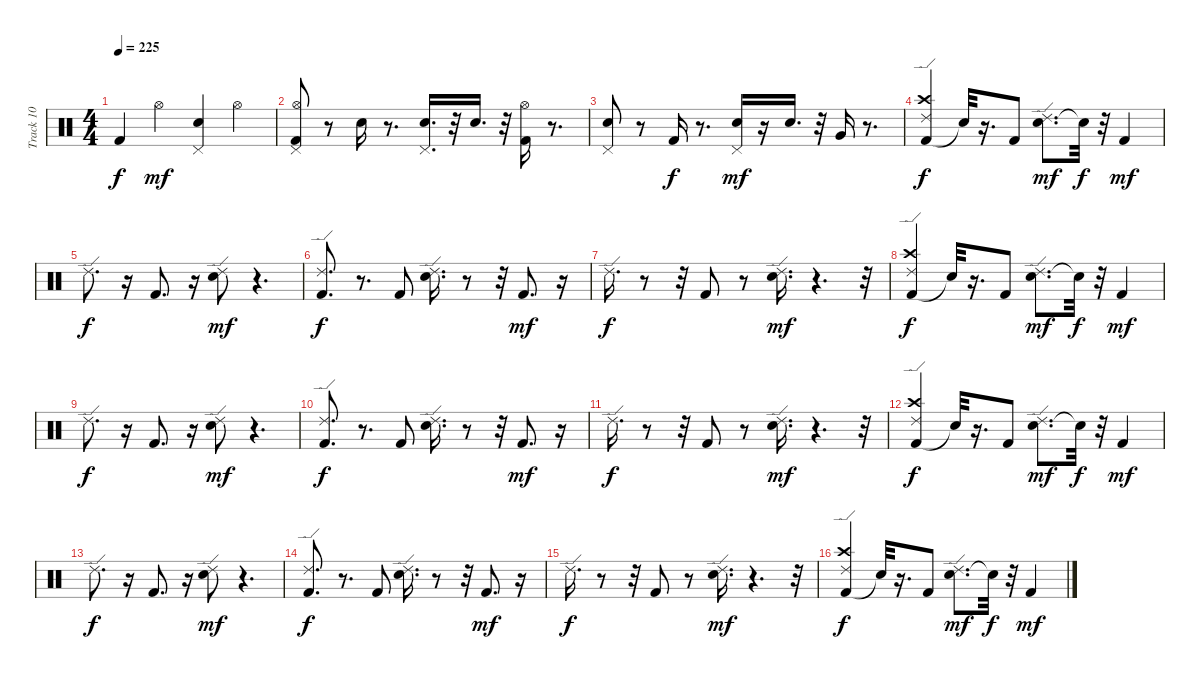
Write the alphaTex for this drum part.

\track ("Track 10" "Track 10") {instrument percussion}
\staff {score}
\articulation defaults
\ts (4 4)
\tempo 225
\clef neutral
\ks c "Kick (hit) 2".4{dy f} "Hi-Hat (open)".4{dy mf}
("Electric Snare (hit)" "Pedal Hi-Hat (hit)").4 "Hi-Hat (open)".4 |
("Kick (hit) 2" "Hi-Hat (open)" "Pedal Hi-Hat (hit)").8 r.8 "Electric Snare (hit)".16 r.8{d} ("Electric Snare (hit)" "Pedal Hi-Hat (hit)").16{d} r.32 "Electric Snare (hit)".16{d} r.32 ("Kick (hit) 2" "Hi-Hat (open)").16 r.8{d} |
("Electric Snare (hit)" "Pedal Hi-Hat (hit)").8 r.8 "Kick (hit) 2".16{dy f} r.8{d} ("Electric Snare (hit)" "Pedal Hi-Hat (hit)").16{dy mf} r.16 "Electric Snare (hit)".16{d} r.32 "Very Low Tom (hit)".16 r.8{d} |
("Kick (hit) 2" "Crash high (hit)" "Ride (edge) 2").4{dy f} "Snare (hit)"{t}.32 r.16{d} "Kick (hit) 2".8 ("Electric Snare (hit)" "Ride (edge) 2").8{d dy mf} "Snare (hit)"{t}.32{dy f} r.32 "Kick (hit) 2".4{dy mf} |
"Ride (edge) 2".8{d dy f} r.16 "Kick (hit) 2".8{d} r.16 ("Electric Snare (hit)" "Ride (edge) 2").8{dy mf} r.4{d} |
("Kick (hit) 2" "Ride (edge) 2").8{d dy f} r.8{d} "Kick (hit) 2".8 ("Electric Snare (hit)" "Ride (edge) 2").16{d} r.8 r.32 "Kick (hit) 2".8{d dy mf} r.16 |
"Ride (edge) 2".16{d dy f} r.8 r.32 "Kick (hit) 2".8 r.8 ("Electric Snare (hit)" "Ride (edge) 2").16{d dy mf} r.4{d} r.32 |
("Kick (hit) 2" "Crash high (hit)" "Ride (edge) 2").4{dy f} "Snare (hit)"{t}.32 r.16{d} "Kick (hit) 2".8 ("Electric Snare (hit)" "Ride (edge) 2").8{d dy mf} "Snare (hit)"{t}.32{dy f} r.32 "Kick (hit) 2".4{dy mf} |
"Ride (edge) 2".8{d dy f} r.16 "Kick (hit) 2".8{d} r.16 ("Electric Snare (hit)" "Ride (edge) 2").8{dy mf} r.4{d} |
("Kick (hit) 2" "Ride (edge) 2").8{d dy f} r.8{d} "Kick (hit) 2".8 ("Electric Snare (hit)" "Ride (edge) 2").16{d} r.8 r.32 "Kick (hit) 2".8{d dy mf} r.16 |
"Ride (edge) 2".16{d dy f} r.8 r.32 "Kick (hit) 2".8 r.8 ("Electric Snare (hit)" "Ride (edge) 2").16{d dy mf} r.4{d} r.32 |
("Kick (hit) 2" "Crash high (hit)" "Ride (edge) 2").4{dy f} "Snare (hit)"{t}.32 r.16{d} "Kick (hit) 2".8 ("Electric Snare (hit)" "Ride (edge) 2").8{d dy mf} "Snare (hit)"{t}.32{dy f} r.32 "Kick (hit) 2".4{dy mf} |
"Ride (edge) 2".8{d dy f} r.16 "Kick (hit) 2".8{d} r.16 ("Electric Snare (hit)" "Ride (edge) 2").8{dy mf} r.4{d} |
("Kick (hit) 2" "Ride (edge) 2").8{d dy f} r.8{d} "Kick (hit) 2".8 ("Electric Snare (hit)" "Ride (edge) 2").16{d} r.8 r.32 "Kick (hit) 2".8{d dy mf} r.16 |
"Ride (edge) 2".16{d dy f} r.8 r.32 "Kick (hit) 2".8 r.8 ("Electric Snare (hit)" "Ride (edge) 2").16{d dy mf} r.4{d} r.32 |
("Kick (hit) 2" "Crash high (hit)" "Ride (edge) 2").4{dy f} "Snare (hit)"{t}.32 r.16{d} "Kick (hit) 2".8 ("Electric Snare (hit)" "Ride (edge) 2").8{d dy mf} "Snare (hit)"{t}.32{dy f} r.32 "Kick (hit) 2".4{dy mf}
